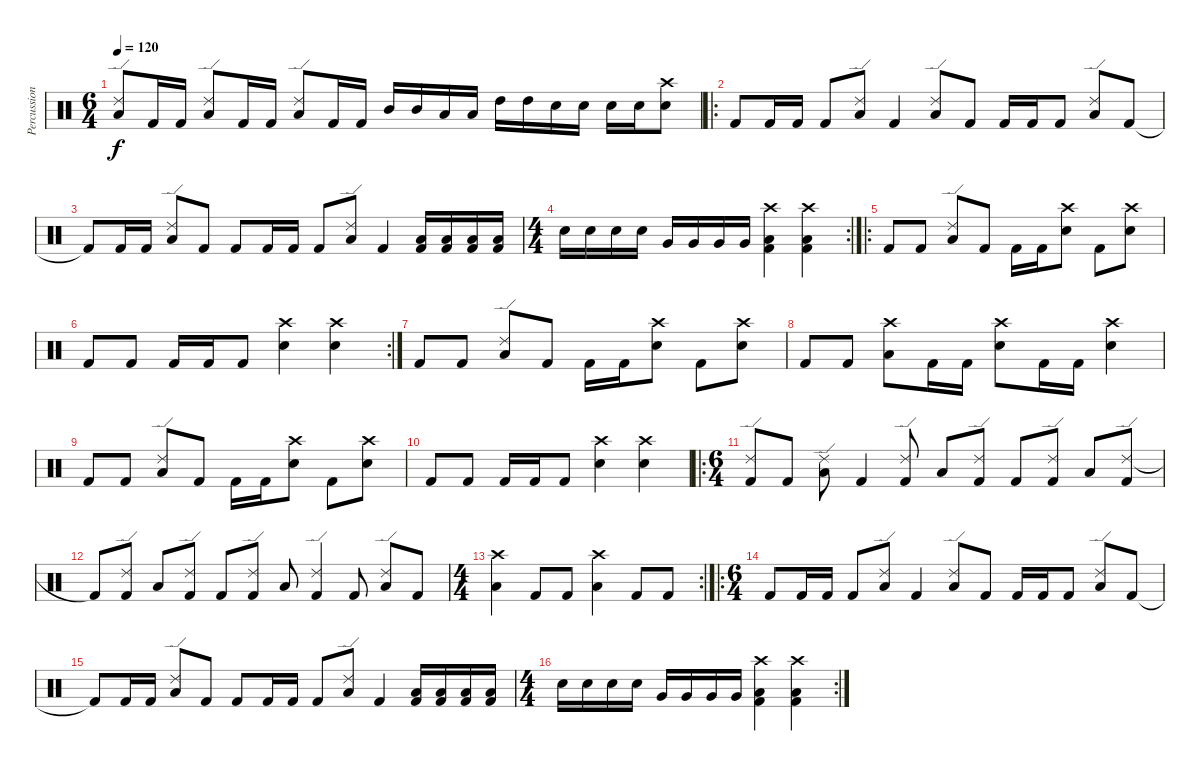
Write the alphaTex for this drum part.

\track ("Percussions" "Percussion") {instrument percussion}
\staff {score}
\articulation defaults
\ts (6 4)
\tempo 120
\clef neutral
\ks c
("Ride (edge) 2" "Low Tom (hit)").8{dy f} "Kick (hit) 2".16 "Kick (hit) 2".16 ("Ride (edge) 2" "Low Tom (hit)").8 "Kick (hit) 2".16 "Kick (hit) 2".16 ("Ride (edge) 2" "Low Tom (hit)").8 "Kick (hit) 2".16 "Kick (hit) 2".16 "Mid Tom (hit)".16 "Mid Tom (hit)".16 "Low Floor Tom (hit)".16 "Low Floor Tom (hit)".16 "High Tom (hit)".16 "High Tom (hit)".16 "Electric Snare (hit)".16 "Electric Snare (hit)".16 "Electric Snare (hit)".16 "Electric Snare (hit)".16 ("Crash high (hit)" "Electric Snare (hit)").8 |
\ro "Kick (hit) 2".8 "Kick (hit) 2".16 "Kick (hit) 2".16 "Kick (hit) 2".8
("Ride (edge) 2" "Low Tom (hit)").8 "Kick (hit) 2".4 ("Ride (edge) 2" "Low Tom (hit)").8 "Kick (hit) 2".8 "Kick (hit) 2".16 "Kick (hit) 2".16 "Kick (hit) 2".8 ("Ride (edge) 2" "Low Tom (hit)").8 "Kick (hit) 2".8 |
"Kick (hit) 2"{t}.8 "Kick (hit) 2".16 "Kick (hit) 2".16 ("Ride (edge) 2" "Low Tom (hit)").8 "Kick (hit) 2".8 "Kick (hit) 2".8 "Kick (hit) 2".16 "Kick (hit) 2".16 "Kick (hit) 2".8 ("Ride (edge) 2" "Low Tom (hit)").8 "Kick (hit) 2".4 ("Low Floor Tom (hit)" "Kick (hit) 2").16 ("Low Floor Tom (hit)" "Kick (hit) 2").16 ("Low Floor Tom (hit)" "Kick (hit) 2").16 ("Low Floor Tom (hit)" "Kick (hit) 2").16 |
\rc 2
\ts (4 4)
"Electric Snare (hit)".16 "Electric Snare (hit)".16 "Electric Snare (hit)".16 "Electric Snare (hit)".16 "Very Low Tom (hit)".16 "Very Low Tom (hit)".16 "Very Low Tom (hit)".16 "Very Low Tom (hit)".16 ("Crash high (hit)" "Kick (hit) 2" "Low Tom (hit)").4 ("Crash high (hit)" "Kick (hit) 2" "Low Tom (hit)").4 |
\ro "Kick (hit) 2".8 "Kick (hit) 2".8
("Ride (edge) 2" "Low Tom (hit)").8 "Kick (hit) 2".8 "Kick (hit) 2".16 "Kick (hit) 2".16 ("Crash high (hit)" "Electric Snare (hit)").8 "Kick (hit) 2".8 ("Crash high (hit)" "Electric Snare (hit)").8 |
\rc 2 "Kick (hit) 2".8 "Kick (hit) 2".8 "Kick (hit) 2".16 "Kick (hit) 2".16 "Kick (hit) 2".8
("Crash high (hit)" "Electric Snare (hit)").4 ("Crash high (hit)" "Electric Snare (hit)").4 |
"Kick (hit) 2".8 "Kick (hit) 2".8 ("Ride (edge) 2" "Low Tom (hit)").8 "Kick (hit) 2".8 "Kick (hit) 2".16 "Kick (hit) 2".16 ("Crash high (hit)" "Electric Snare (hit)").8 "Kick (hit) 2".8 ("Crash high (hit)" "Electric Snare (hit)").8 |
"Kick (hit) 2".8 "Kick (hit) 2".8 ("Crash high (hit)" "Low Tom (hit)").8 "Kick (hit) 2".16 "Kick (hit) 2".16 ("Crash high (hit)" "Electric Snare (hit)").8 "Kick (hit) 2".16 "Kick (hit) 2".16 ("Crash high (hit)" "Electric Snare (hit)").4 |
"Kick (hit) 2".8 "Kick (hit) 2".8 ("Ride (edge) 2" "Low Tom (hit)").8 "Kick (hit) 2".8 "Kick (hit) 2".16 "Kick (hit) 2".16 ("Crash high (hit)" "Electric Snare (hit)").8 "Kick (hit) 2".8 ("Crash high (hit)" "Electric Snare (hit)").8 |
"Kick (hit) 2".8 "Kick (hit) 2".8 "Kick (hit) 2".16 "Kick (hit) 2".16 "Kick (hit) 2".8 ("Crash high (hit)" "Electric Snare (hit)").4 ("Crash high (hit)" "Electric Snare (hit)").4 |
\ro
\ts (6 4)
("Ride (edge) 2" "Kick (hit) 2").8 "Kick (hit) 2".8 ("Ride (edge) 2" "Low Tom (hit)").8 "Kick (hit) 2".4 ("Ride (edge) 2" "Kick (hit) 2").8 "Low Tom (hit)".8 ("Ride (edge) 2" "Kick (hit) 2").8 "Kick (hit) 2".8 ("Ride (edge) 2" "Kick (hit) 2").8 "Low Tom (hit)".8 ("Ride (edge) 2" "Kick (hit) 2").8 |
"Kick (hit) 2"{t}.8 ("Ride (edge) 2" "Kick (hit) 2").8 "Low Tom (hit)".8 ("Ride (edge) 2" "Kick (hit) 2").8 "Kick (hit) 2".8 ("Ride (edge) 2" "Kick (hit) 2").8 "Low Tom (hit)".8 ("Ride (edge) 2" "Kick (hit) 2").4 "Kick (hit) 2".8 ("Ride (edge) 2" "Low Tom (hit)").8 "Kick (hit) 2".8 |
\rc 2
\ts (4 4)
("Crash high (hit)" "Low Tom (hit)").4 "Kick (hit) 2".8 "Kick (hit) 2".8 ("Crash high (hit)" "Low Tom (hit)").4 "Kick (hit) 2".8 "Kick (hit) 2".8 |
\ro
\ts (6 4)
"Kick (hit) 2".8 "Kick (hit) 2".16 "Kick (hit) 2".16 "Kick (hit) 2".8 ("Ride (edge) 2" "Low Tom (hit)").8 "Kick (hit) 2".4 ("Ride (edge) 2" "Low Tom (hit)").8 "Kick (hit) 2".8 "Kick (hit) 2".16 "Kick (hit) 2".16 "Kick (hit) 2".8 ("Ride (edge) 2" "Low Tom (hit)").8 "Kick (hit) 2".8 |
"Kick (hit) 2"{t}.8 "Kick (hit) 2".16 "Kick (hit) 2".16 ("Ride (edge) 2" "Low Tom (hit)").8 "Kick (hit) 2".8 "Kick (hit) 2".8 "Kick (hit) 2".16 "Kick (hit) 2".16 "Kick (hit) 2".8 ("Ride (edge) 2" "Low Tom (hit)").8 "Kick (hit) 2".4 ("Low Floor Tom (hit)" "Kick (hit) 2").16 ("Low Floor Tom (hit)" "Kick (hit) 2").16 ("Low Floor Tom (hit)" "Kick (hit) 2").16 ("Low Floor Tom (hit)" "Kick (hit) 2").16 |
\rc 2
\ts (4 4)
"Electric Snare (hit)".16 "Electric Snare (hit)".16 "Electric Snare (hit)".16 "Electric Snare (hit)".16 "Very Low Tom (hit)".16 "Very Low Tom (hit)".16 "Very Low Tom (hit)".16 "Very Low Tom (hit)".16 ("Crash high (hit)" "Kick (hit) 2" "Low Tom (hit)").4 ("Crash high (hit)" "Kick (hit) 2" "Low Tom (hit)").4
